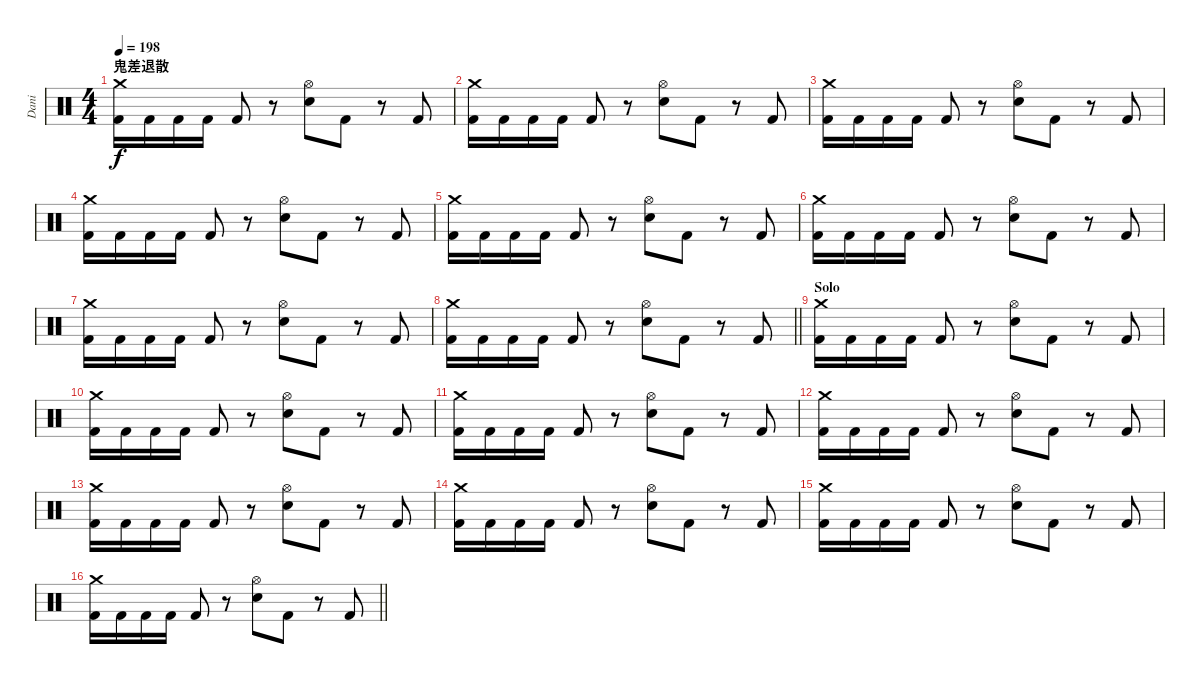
\track ("Dani" "Dani") {instrument percussion}
\staff {score}
\articulation defaults
\ts (4 4)
\section ("" "鬼差退散")
\tempo 198
\clef neutral
\ks c
("Crash medium (hit)" "Kick (hit) 2").16{dy f} "Kick (hit) 2".16 "Kick (hit) 2".16 "Kick (hit) 2".16 "Kick (hit) 2".8 r.8 ("Hi-Hat (open)" "Electric Snare (hit)").8 "Kick (hit) 2".8 r.8 "Kick (hit) 2".8 |
("Crash medium (hit)" "Kick (hit) 2").16 "Kick (hit) 2".16 "Kick (hit) 2".16 "Kick (hit) 2".16 "Kick (hit) 2".8 r.8 ("Hi-Hat (open)" "Electric Snare (hit)").8 "Kick (hit) 2".8 r.8 "Kick (hit) 2".8 |
("Crash medium (hit)" "Kick (hit) 2").16 "Kick (hit) 2".16 "Kick (hit) 2".16 "Kick (hit) 2".16 "Kick (hit) 2".8 r.8 ("Hi-Hat (open)" "Electric Snare (hit)").8 "Kick (hit) 2".8 r.8 "Kick (hit) 2".8 |
("Crash medium (hit)" "Kick (hit) 2").16 "Kick (hit) 2".16 "Kick (hit) 2".16 "Kick (hit) 2".16 "Kick (hit) 2".8 r.8 ("Hi-Hat (open)" "Electric Snare (hit)").8 "Kick (hit) 2".8 r.8 "Kick (hit) 2".8 |
("Crash medium (hit)" "Kick (hit) 2").16 "Kick (hit) 2".16 "Kick (hit) 2".16 "Kick (hit) 2".16 "Kick (hit) 2".8 r.8 ("Hi-Hat (open)" "Electric Snare (hit)").8 "Kick (hit) 2".8 r.8 "Kick (hit) 2".8 |
("Crash medium (hit)" "Kick (hit) 2").16 "Kick (hit) 2".16 "Kick (hit) 2".16 "Kick (hit) 2".16 "Kick (hit) 2".8 r.8 ("Hi-Hat (open)" "Electric Snare (hit)").8 "Kick (hit) 2".8 r.8 "Kick (hit) 2".8 |
("Crash medium (hit)" "Kick (hit) 2").16 "Kick (hit) 2".16 "Kick (hit) 2".16 "Kick (hit) 2".16 "Kick (hit) 2".8 r.8 ("Hi-Hat (open)" "Electric Snare (hit)").8 "Kick (hit) 2".8 r.8 "Kick (hit) 2".8 |
\barLineRight lightlight
("Crash medium (hit)" "Kick (hit) 2").16 "Kick (hit) 2".16 "Kick (hit) 2".16 "Kick (hit) 2".16 "Kick (hit) 2".8 r.8 ("Hi-Hat (open)" "Electric Snare (hit)").8 "Kick (hit) 2".8 r.8 "Kick (hit) 2".8 |
\section ("" "Solo")
("Crash medium (hit)" "Kick (hit) 2").16 "Kick (hit) 2".16 "Kick (hit) 2".16 "Kick (hit) 2".16 "Kick (hit) 2".8 r.8 ("Hi-Hat (open)" "Electric Snare (hit)").8 "Kick (hit) 2".8 r.8 "Kick (hit) 2".8 |
("Crash medium (hit)" "Kick (hit) 2").16 "Kick (hit) 2".16 "Kick (hit) 2".16 "Kick (hit) 2".16 "Kick (hit) 2".8 r.8 ("Hi-Hat (open)" "Electric Snare (hit)").8 "Kick (hit) 2".8 r.8 "Kick (hit) 2".8 |
("Crash medium (hit)" "Kick (hit) 2").16 "Kick (hit) 2".16 "Kick (hit) 2".16 "Kick (hit) 2".16 "Kick (hit) 2".8 r.8 ("Hi-Hat (open)" "Electric Snare (hit)").8 "Kick (hit) 2".8 r.8 "Kick (hit) 2".8 |
("Crash medium (hit)" "Kick (hit) 2").16 "Kick (hit) 2".16 "Kick (hit) 2".16 "Kick (hit) 2".16 "Kick (hit) 2".8 r.8 ("Hi-Hat (open)" "Electric Snare (hit)").8 "Kick (hit) 2".8 r.8 "Kick (hit) 2".8 |
("Crash medium (hit)" "Kick (hit) 2").16 "Kick (hit) 2".16 "Kick (hit) 2".16 "Kick (hit) 2".16 "Kick (hit) 2".8 r.8 ("Hi-Hat (open)" "Electric Snare (hit)").8 "Kick (hit) 2".8 r.8 "Kick (hit) 2".8 |
("Crash medium (hit)" "Kick (hit) 2").16 "Kick (hit) 2".16 "Kick (hit) 2".16 "Kick (hit) 2".16 "Kick (hit) 2".8 r.8 ("Hi-Hat (open)" "Electric Snare (hit)").8 "Kick (hit) 2".8 r.8 "Kick (hit) 2".8 |
("Crash medium (hit)" "Kick (hit) 2").16 "Kick (hit) 2".16 "Kick (hit) 2".16 "Kick (hit) 2".16 "Kick (hit) 2".8 r.8 ("Hi-Hat (open)" "Electric Snare (hit)").8 "Kick (hit) 2".8 r.8 "Kick (hit) 2".8 |
\barLineRight lightlight
("Crash medium (hit)" "Kick (hit) 2").16 "Kick (hit) 2".16 "Kick (hit) 2".16 "Kick (hit) 2".16 "Kick (hit) 2".8 r.8 ("Hi-Hat (open)" "Electric Snare (hit)").8 "Kick (hit) 2".8 r.8 "Kick (hit) 2".8
